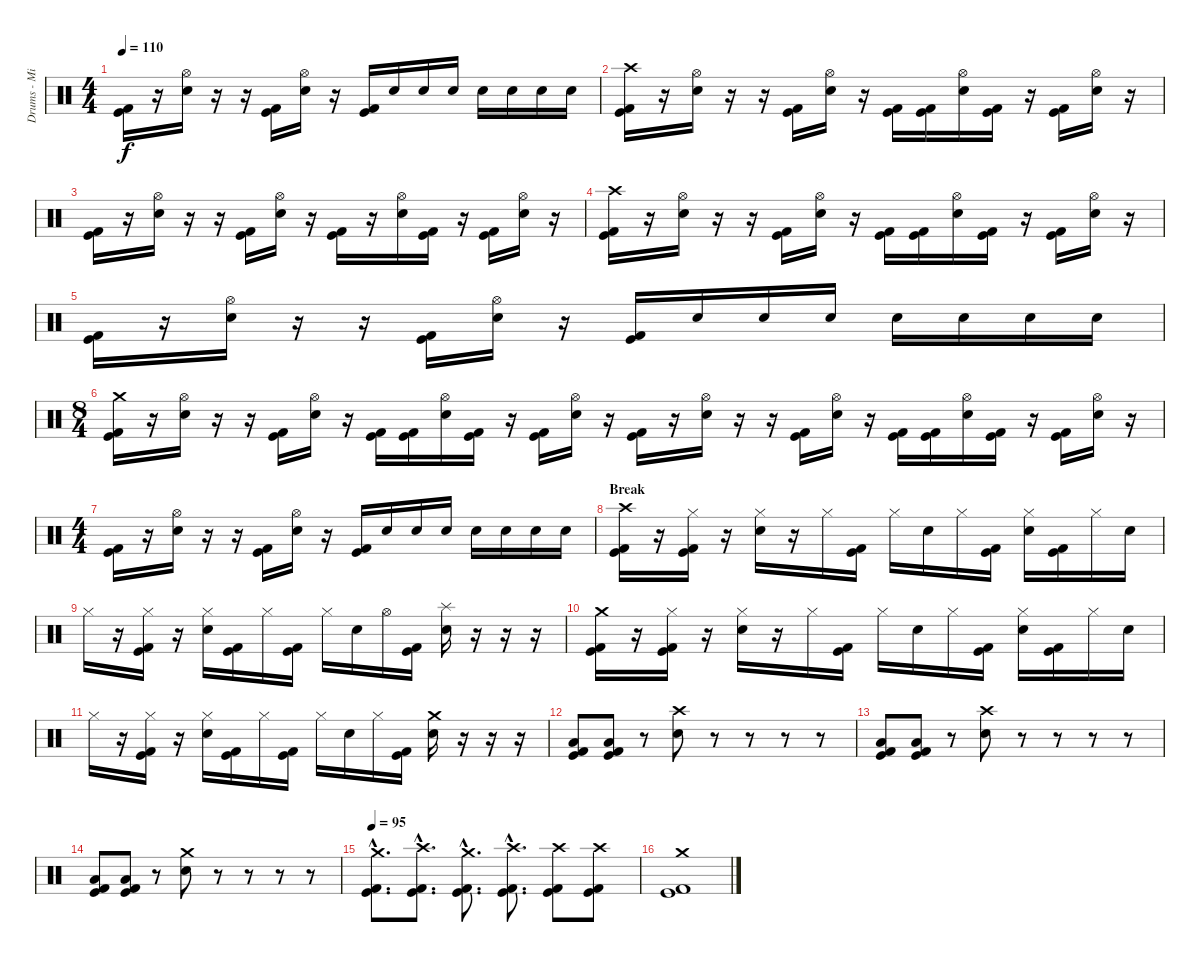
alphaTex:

\track ("Drums - Mikkey Dee" "Drums - Mi") {instrument percussion}
\staff {score}
\articulation defaults
\ts (4 4)
\tempo 110
\clef neutral
\ks c
("Kick (hit)" "Kick (hit) 2").16{dy f} r.16 ("Hi-Hat (open)" "Snare (hit) 2").16 r.16 r.16 ("Kick (hit)" "Kick (hit) 2").16 ("Hi-Hat (open)" "Snare (hit) 2").16 r.16 ("Kick (hit)" "Kick (hit) 2").16 "Snare (hit) 2".16 "Snare (hit) 2".16 "Snare (hit) 2".16 "Snare (hit) 2".16 "Snare (hit) 2".16 "Snare (hit) 2".16 "Snare (hit) 2".16 |
("Crash high (hit)" "Kick (hit)" "Kick (hit) 2").16 r.16 ("Hi-Hat (open)" "Snare (hit) 2").16 r.16 r.16 ("Kick (hit)" "Kick (hit) 2").16 ("Hi-Hat (open)" "Snare (hit) 2").16 r.16 ("Kick (hit)" "Kick (hit) 2").16 ("Kick (hit)" "Kick (hit) 2").16 ("Hi-Hat (open)" "Snare (hit) 2").16 ("Kick (hit)" "Kick (hit) 2").16 r.16 ("Kick (hit)" "Kick (hit) 2").16 ("Hi-Hat (open)" "Snare (hit) 2").16 r.16 |
("Kick (hit)" "Kick (hit) 2").16 r.16 ("Hi-Hat (open)" "Snare (hit) 2").16 r.16 r.16 ("Kick (hit)" "Kick (hit) 2").16 ("Hi-Hat (open)" "Snare (hit) 2").16 r.16 ("Kick (hit)" "Kick (hit) 2").16 r.16 ("Hi-Hat (open)" "Snare (hit) 2").16 ("Kick (hit)" "Kick (hit) 2").16 r.16 ("Kick (hit)" "Kick (hit) 2").16 ("Hi-Hat (open)" "Snare (hit) 2").16 r.16 |
("Crash high (hit)" "Kick (hit)" "Kick (hit) 2").16 r.16 ("Hi-Hat (open)" "Snare (hit) 2").16 r.16 r.16 ("Kick (hit)" "Kick (hit) 2").16 ("Hi-Hat (open)" "Snare (hit) 2").16 r.16 ("Kick (hit)" "Kick (hit) 2").16 ("Kick (hit)" "Kick (hit) 2").16 ("Hi-Hat (open)" "Snare (hit) 2").16 ("Kick (hit)" "Kick (hit) 2").16 r.16 ("Kick (hit)" "Kick (hit) 2").16 ("Hi-Hat (open)" "Snare (hit) 2").16 r.16 |
("Kick (hit)" "Kick (hit) 2").16 r.16 ("Hi-Hat (open)" "Snare (hit) 2").16 r.16 r.16 ("Kick (hit)" "Kick (hit) 2").16 ("Hi-Hat (open)" "Snare (hit) 2").16 r.16 ("Kick (hit)" "Kick (hit) 2").16 "Snare (hit) 2".16 "Snare (hit) 2".16 "Snare (hit) 2".16 "Snare (hit) 2".16 "Snare (hit) 2".16 "Snare (hit) 2".16 "Snare (hit) 2".16 |
\ts (8 4)
("Crash medium (hit)" "Kick (hit)" "Kick (hit) 2").16 r.16 ("Hi-Hat (open)" "Snare (hit) 2").16 r.16 r.16 ("Kick (hit)" "Kick (hit) 2").16 ("Hi-Hat (open)" "Snare (hit) 2").16 r.16 ("Kick (hit)" "Kick (hit) 2").16 ("Kick (hit)" "Kick (hit) 2").16 ("Hi-Hat (open)" "Snare (hit) 2").16 ("Kick (hit)" "Kick (hit) 2").16 r.16 ("Kick (hit)" "Kick (hit) 2").16 ("Hi-Hat (open)" "Snare (hit) 2").16 r.16 ("Kick (hit)" "Kick (hit) 2").16 r.16 ("Hi-Hat (open)" "Snare (hit) 2").16 r.16 r.16 ("Kick (hit)" "Kick (hit) 2").16 ("Hi-Hat (open)" "Snare (hit) 2").16 r.16 ("Kick (hit)" "Kick (hit) 2").16 ("Kick (hit)" "Kick (hit) 2").16 ("Hi-Hat (open)" "Snare (hit) 2").16 ("Kick (hit)" "Kick (hit) 2").16 r.16 ("Kick (hit)" "Kick (hit) 2").16 ("Hi-Hat (open)" "Snare (hit) 2").16 r.16 |
\ts (4 4)
("Kick (hit)" "Kick (hit) 2").16 r.16 ("Hi-Hat (open)" "Snare (hit) 2").16 r.16 r.16 ("Kick (hit)" "Kick (hit) 2").16 ("Hi-Hat (open)" "Snare (hit) 2").16 r.16 ("Kick (hit)" "Kick (hit) 2").16 "Snare (hit) 2".16 "Snare (hit) 2".16 "Snare (hit) 2".16 "Snare (hit) 2".16 "Snare (hit) 2".16 "Snare (hit) 2".16 "Snare (hit) 2".16 |
\section ("" "Break")
("Crash high (hit)" "Kick (hit)" "Kick (hit) 2").16 r.16 ("Hi-Hat (closed)" "Kick (hit)" "Kick (hit) 2").16 r.16 ("Hi-Hat (closed)" "Snare (hit) 2").16 r.16 "Hi-Hat (closed)".16 ("Kick (hit)" "Kick (hit) 2").16 "Hi-Hat (closed)".16 "Snare (hit) 2".16 "Hi-Hat (closed)".16 ("Kick (hit)" "Kick (hit) 2").16 ("Hi-Hat (closed)" "Snare (hit) 2").16 ("Kick (hit)" "Kick (hit) 2").16 "Hi-Hat (closed)".16 "Snare (hit) 2".16 |
"Hi-Hat (closed)".16 r.16 ("Hi-Hat (closed)" "Kick (hit)" "Kick (hit) 2").16 r.16 ("Hi-Hat (closed)" "Snare (hit) 2").16 ("Kick (hit)" "Kick (hit) 2").16 "Hi-Hat (closed)".16 ("Kick (hit)" "Kick (hit) 2").16 "Hi-Hat (closed)".16 "Snare (hit) 2".16 "Hi-Hat (open)".16 ("Kick (hit)" "Kick (hit) 2").16 ("Splash (hit)" "Snare (hit) 2").16 r.16 r.16 r.16 |
("Crash medium (hit)" "Kick (hit)" "Kick (hit) 2").16 r.16 ("Hi-Hat (closed)" "Kick (hit)" "Kick (hit) 2").16 r.16 ("Hi-Hat (closed)" "Snare (hit) 2").16 r.16 "Hi-Hat (closed)".16 ("Kick (hit)" "Kick (hit) 2").16 "Hi-Hat (closed)".16 "Snare (hit) 2".16 "Hi-Hat (closed)".16 ("Kick (hit)" "Kick (hit) 2").16 ("Hi-Hat (closed)" "Snare (hit) 2").16 ("Kick (hit)" "Kick (hit) 2").16 "Hi-Hat (closed)".16 "Snare (hit) 2".16 |
"Hi-Hat (closed)".16 r.16 ("Hi-Hat (closed)" "Kick (hit)" "Kick (hit) 2").16 r.16 ("Hi-Hat (closed)" "Snare (hit) 2").16 ("Kick (hit)" "Kick (hit) 2").16 "Hi-Hat (closed)".16 ("Kick (hit)" "Kick (hit) 2").16 "Hi-Hat (closed)".16 "Snare (hit) 2".16 "Hi-Hat (closed)".16 ("Kick (hit)" "Kick (hit) 2").16 ("Crash medium (hit)" "Snare (hit) 2").16 r.16 r.16 r.16 |
("Low Tom (hit)" "Kick (hit)" "Kick (hit) 2").8 ("Low Tom (hit)" "Kick (hit)" "Kick (hit) 2").8 r.8 ("Crash high (hit)" "Snare (hit) 2").8 r.8 r.8 r.8 r.8 |
("Low Tom (hit)" "Kick (hit)" "Kick (hit) 2").8 ("Low Tom (hit)" "Kick (hit)" "Kick (hit) 2").8 r.8 ("Crash high (hit)" "Snare (hit) 2").8 r.8 r.8 r.8 r.8 |
("Low Tom (hit)" "Kick (hit)" "Kick (hit) 2").8 ("Low Tom (hit)" "Kick (hit)" "Kick (hit) 2").8 r.8 ("Crash medium (hit)" "Snare (hit) 2").8 r.8 r.8 r.8 r.8 |
\tempo 95
("Crash medium (hit)"{hac} "Kick (hit)"{hac} "Kick (hit) 2"{hac}).8{d} ("Crash high (hit)"{hac} "Kick (hit)"{hac} "Kick (hit) 2"{hac}).8{d} ("Crash medium (hit)"{hac} "Kick (hit)"{hac} "Kick (hit) 2"{hac}).8{d} ("Crash high (hit)"{hac} "Kick (hit)"{hac} "Kick (hit) 2"{hac}).8{d} ("Crash high (hit)" "Kick (hit)" "Kick (hit) 2").8 ("Crash high (hit)" "Kick (hit)" "Kick (hit) 2").8 |
("Crash medium (hit)" "Kick (hit)" "Kick (hit) 2").1
